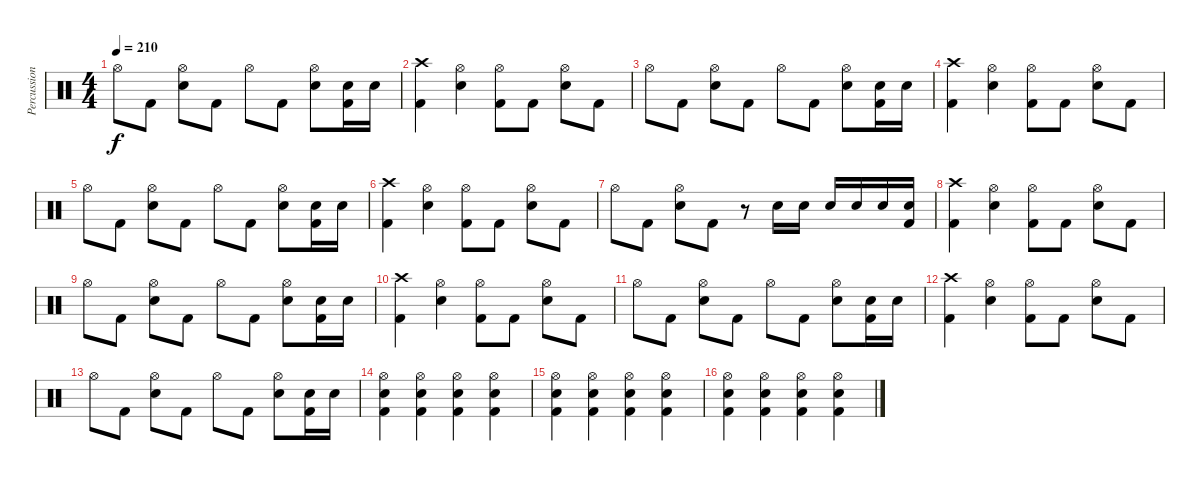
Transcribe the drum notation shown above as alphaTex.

\track ("Percussions" "Percussion") {instrument percussion}
\staff {score}
\articulation defaults
\ts (4 4)
\tempo 210
\clef neutral
\ks c "Hi-Hat (open)".8{dy f} "Kick (hit) 2".8
("Snare (hit) 2" "Hi-Hat (open)").8 "Kick (hit) 2".8 "Hi-Hat (open)".8 "Kick (hit) 2".8 ("Snare (hit) 2" "Hi-Hat (open)").8 ("Kick (hit) 2" "Snare (hit) 2").16 "Snare (hit) 2".16 |
("Kick (hit) 2" "Crash high (hit)").4 ("Snare (hit) 2" "Hi-Hat (open)").4 ("Kick (hit) 2" "Hi-Hat (open)").8 "Kick (hit) 2".8 ("Snare (hit) 2" "Hi-Hat (open)").8 "Kick (hit) 2".8 |
"Hi-Hat (open)".8 "Kick (hit) 2".8 ("Snare (hit) 2" "Hi-Hat (open)").8 "Kick (hit) 2".8 "Hi-Hat (open)".8 "Kick (hit) 2".8 ("Snare (hit) 2" "Hi-Hat (open)").8 ("Kick (hit) 2" "Snare (hit) 2").16 "Snare (hit) 2".16 |
("Kick (hit) 2" "Crash high (hit)").4 ("Snare (hit) 2" "Hi-Hat (open)").4 ("Kick (hit) 2" "Hi-Hat (open)").8 "Kick (hit) 2".8 ("Snare (hit) 2" "Hi-Hat (open)").8 "Kick (hit) 2".8 |
"Hi-Hat (open)".8 "Kick (hit) 2".8 ("Snare (hit) 2" "Hi-Hat (open)").8 "Kick (hit) 2".8 "Hi-Hat (open)".8 "Kick (hit) 2".8 ("Snare (hit) 2" "Hi-Hat (open)").8 ("Kick (hit) 2" "Snare (hit) 2").16 "Snare (hit) 2".16 |
("Kick (hit) 2" "Crash high (hit)").4 ("Snare (hit) 2" "Hi-Hat (open)").4 ("Kick (hit) 2" "Hi-Hat (open)").8 "Kick (hit) 2".8 ("Snare (hit) 2" "Hi-Hat (open)").8 "Kick (hit) 2".8 |
"Hi-Hat (open)".8 "Kick (hit) 2".8 ("Snare (hit) 2" "Hi-Hat (open)").8 "Kick (hit) 2".8 r.8 "Snare (hit) 2".16 "Snare (hit) 2".16 "Snare (hit) 2".16 "Snare (hit) 2".16 "Snare (hit) 2".16 ("Kick (hit) 2" "Snare (hit) 2").16 |
("Kick (hit) 2" "Crash high (hit)").4 ("Snare (hit) 2" "Hi-Hat (open)").4 ("Kick (hit) 2" "Hi-Hat (open)").8 "Kick (hit) 2".8 ("Snare (hit) 2" "Hi-Hat (open)").8 "Kick (hit) 2".8 |
"Hi-Hat (open)".8 "Kick (hit) 2".8 ("Snare (hit) 2" "Hi-Hat (open)").8 "Kick (hit) 2".8 "Hi-Hat (open)".8 "Kick (hit) 2".8 ("Snare (hit) 2" "Hi-Hat (open)").8 ("Kick (hit) 2" "Snare (hit) 2").16 "Snare (hit) 2".16 |
("Kick (hit) 2" "Crash high (hit)").4 ("Snare (hit) 2" "Hi-Hat (open)").4 ("Kick (hit) 2" "Hi-Hat (open)").8 "Kick (hit) 2".8 ("Snare (hit) 2" "Hi-Hat (open)").8 "Kick (hit) 2".8 |
"Hi-Hat (open)".8 "Kick (hit) 2".8 ("Snare (hit) 2" "Hi-Hat (open)").8 "Kick (hit) 2".8 "Hi-Hat (open)".8 "Kick (hit) 2".8 ("Snare (hit) 2" "Hi-Hat (open)").8 ("Kick (hit) 2" "Snare (hit) 2").16 "Snare (hit) 2".16 |
("Kick (hit) 2" "Crash high (hit)").4 ("Snare (hit) 2" "Hi-Hat (open)").4 ("Kick (hit) 2" "Hi-Hat (open)").8 "Kick (hit) 2".8 ("Snare (hit) 2" "Hi-Hat (open)").8 "Kick (hit) 2".8 |
"Hi-Hat (open)".8 "Kick (hit) 2".8 ("Snare (hit) 2" "Hi-Hat (open)").8 "Kick (hit) 2".8 "Hi-Hat (open)".8 "Kick (hit) 2".8 ("Snare (hit) 2" "Hi-Hat (open)").8 ("Kick (hit) 2" "Snare (hit) 2").16 "Snare (hit) 2".16 |
("Kick (hit) 2" "Snare (hit) 2" "Hi-Hat (open)").4 ("Kick (hit) 2" "Snare (hit) 2" "Hi-Hat (open)").4 ("Kick (hit) 2" "Snare (hit) 2" "Hi-Hat (open)").4 ("Kick (hit) 2" "Snare (hit) 2" "Hi-Hat (open)").4 |
("Kick (hit) 2" "Snare (hit) 2" "Hi-Hat (open)").4 ("Kick (hit) 2" "Snare (hit) 2" "Hi-Hat (open)").4 ("Kick (hit) 2" "Snare (hit) 2" "Hi-Hat (open)").4 ("Kick (hit) 2" "Snare (hit) 2" "Hi-Hat (open)").4 |
("Kick (hit) 2" "Snare (hit) 2" "Hi-Hat (open)").4 ("Kick (hit) 2" "Snare (hit) 2" "Hi-Hat (open)").4 ("Kick (hit) 2" "Snare (hit) 2" "Hi-Hat (open)").4 ("Kick (hit) 2" "Snare (hit) 2" "Hi-Hat (open)").4
